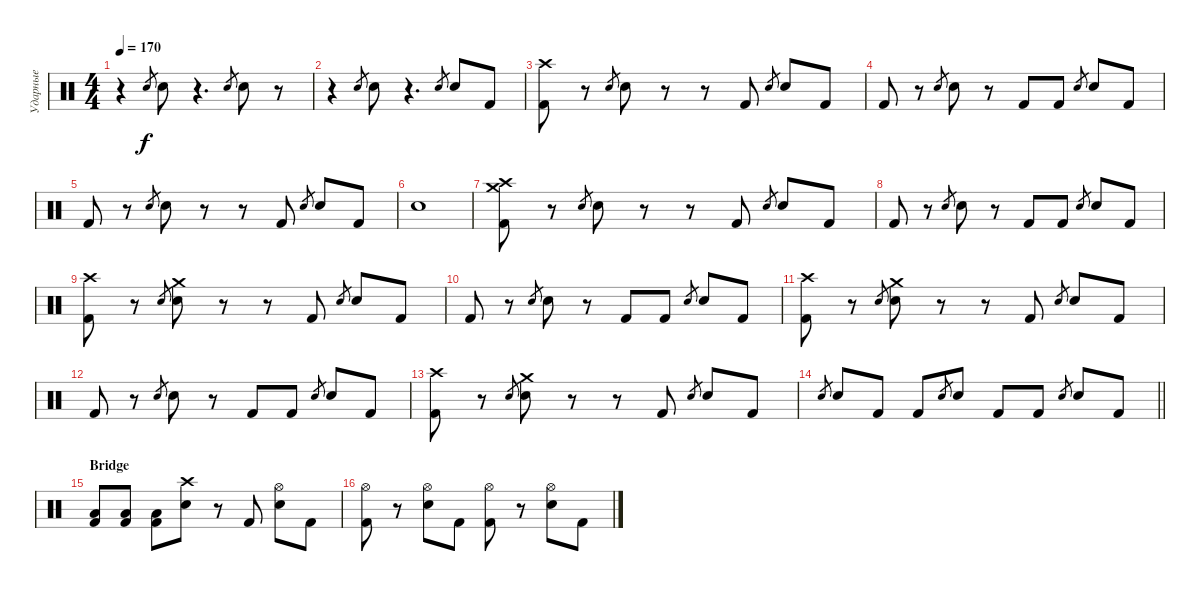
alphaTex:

\track ("Ударные" "Ударные") {instrument percussion}
\staff {score}
\articulation defaults
\ts (4 4)
\tempo 170
\clef neutral
\ks c
r.4{dy f} "Electric Snare (hit)".8{gr} "Electric Snare (hit)".8 r.4{d} "Electric Snare (hit)".8{gr} "Electric Snare (hit)".8 r.8 |
r.4 "Electric Snare (hit)".8{gr} "Electric Snare (hit)".8 r.4{d} "Electric Snare (hit)".8{gr} "Electric Snare (hit)".8 "Kick (hit) 2".8 |
("Crash high (hit)" "Kick (hit) 2").8 r.8 "Electric Snare (hit)".8{gr} "Electric Snare (hit)".8 r.8 r.8 "Kick (hit) 2".8 "Electric Snare (hit)".8{gr} "Electric Snare (hit)".8 "Kick (hit) 2".8 |
"Kick (hit) 2".8 r.8 "Electric Snare (hit)".8{gr} "Electric Snare (hit)".8 r.8 "Kick (hit) 2".8 "Kick (hit) 2".8 "Electric Snare (hit)".8{gr} "Electric Snare (hit)".8 "Kick (hit) 2".8 |
"Kick (hit) 2".8 r.8 "Electric Snare (hit)".8{gr} "Electric Snare (hit)".8 r.8 r.8 "Kick (hit) 2".8 "Electric Snare (hit)".8{gr} "Electric Snare (hit)".8 "Kick (hit) 2".8 |
"Electric Snare (hit)".1 |
("Crash high (hit)" "Crash medium (hit)" "Kick (hit) 2").8 r.8 "Electric Snare (hit)".8{gr} "Electric Snare (hit)".8 r.8 r.8 "Kick (hit) 2".8 "Electric Snare (hit)".8{gr} "Electric Snare (hit)".8 "Kick (hit) 2".8 |
"Kick (hit) 2".8 r.8 "Electric Snare (hit)".8{gr} "Electric Snare (hit)".8 r.8 "Kick (hit) 2".8 "Kick (hit) 2".8 "Electric Snare (hit)".8{gr} "Electric Snare (hit)".8 "Kick (hit) 2".8 |
("Crash high (hit)" "Kick (hit) 2").8 r.8 "Electric Snare (hit)".8{gr} ("Crash medium (hit)" "Electric Snare (hit)").8 r.8 r.8 "Kick (hit) 2".8 "Electric Snare (hit)".8{gr} "Electric Snare (hit)".8 "Kick (hit) 2".8 |
"Kick (hit) 2".8 r.8 "Electric Snare (hit)".8{gr} "Electric Snare (hit)".8 r.8 "Kick (hit) 2".8 "Kick (hit) 2".8 "Electric Snare (hit)".8{gr} "Electric Snare (hit)".8 "Kick (hit) 2".8 |
("Crash high (hit)" "Kick (hit) 2").8 r.8 "Electric Snare (hit)".8{gr} ("Crash medium (hit)" "Electric Snare (hit)").8 r.8 r.8 "Kick (hit) 2".8 "Electric Snare (hit)".8{gr} "Electric Snare (hit)".8 "Kick (hit) 2".8 |
"Kick (hit) 2".8 r.8 "Electric Snare (hit)".8{gr} "Electric Snare (hit)".8 r.8 "Kick (hit) 2".8 "Kick (hit) 2".8 "Electric Snare (hit)".8{gr} "Electric Snare (hit)".8 "Kick (hit) 2".8 |
("Crash high (hit)" "Kick (hit) 2").8 r.8 "Electric Snare (hit)".8{gr} ("Crash medium (hit)" "Electric Snare (hit)").8 r.8 r.8 "Kick (hit) 2".8 "Electric Snare (hit)".8{gr} "Electric Snare (hit)".8 "Kick (hit) 2".8 |
\barLineRight lightlight "Electric Snare (hit)".8{gr} "Electric Snare (hit)".8 "Kick (hit) 2".8 "Kick (hit) 2".8 "Electric Snare (hit)".8{gr} "Electric Snare (hit)".8 "Kick (hit) 2".8 "Kick (hit) 2".8 "Electric Snare (hit)".8{gr} "Electric Snare (hit)".8 "Kick (hit) 2".8
|
\section ("" "Bridge")
("Low Tom (hit)" "Kick (hit) 2").8 ("Low Tom (hit)" "Kick (hit) 2").8 ("Low Tom (hit)" "Kick (hit) 2").8 ("Crash high (hit)" "Electric Snare (hit)").8 r.8 "Kick (hit) 2".8 ("Hi-Hat (open)" "Electric Snare (hit)").8 "Kick (hit) 2".8 |
("Hi-Hat (open)" "Kick (hit) 2").8 r.8 ("Hi-Hat (open)" "Electric Snare (hit)").8 "Kick (hit) 2".8 ("Hi-Hat (open)" "Kick (hit) 2").8 r.8 ("Hi-Hat (open)" "Electric Snare (hit)").8 "Kick (hit) 2".8
